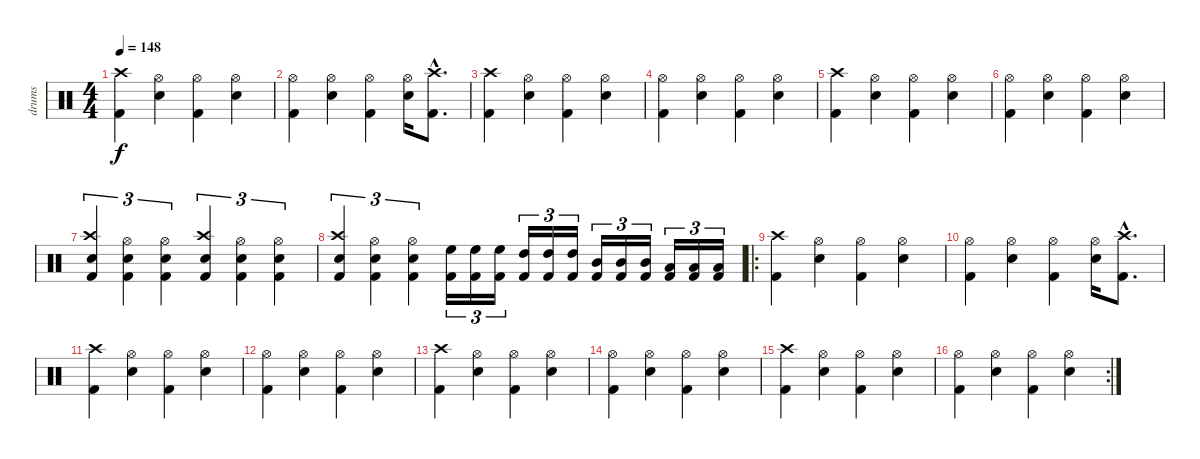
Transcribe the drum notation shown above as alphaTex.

\track ("drums" "drums") {instrument percussion}
\staff {score}
\articulation defaults
\ts (4 4)
\tempo 148
\clef neutral
\ks c
("Kick (hit) 2" "Crash high (hit)").4{dy f} ("Snare (hit) 2" "Hi-Hat (open)").4 ("Kick (hit) 2" "Hi-Hat (open)").4 ("Snare (hit) 2" "Hi-Hat (open)").4 |
("Kick (hit) 2" "Hi-Hat (open)").4 ("Snare (hit) 2" "Hi-Hat (open)").4 ("Kick (hit) 2" "Hi-Hat (open)").4 ("Snare (hit) 2" "Hi-Hat (open)").16 ("Kick (hit) 2"{hac} "Crash high (hit)"{hac}).8{d} |
("Kick (hit) 2" "Crash high (hit)").4 ("Snare (hit) 2" "Hi-Hat (open)").4 ("Kick (hit) 2" "Hi-Hat (open)").4 ("Snare (hit) 2" "Hi-Hat (open)").4 |
("Kick (hit) 2" "Hi-Hat (open)").4 ("Snare (hit) 2" "Hi-Hat (open)").4 ("Kick (hit) 2" "Hi-Hat (open)").4 ("Snare (hit) 2" "Hi-Hat (open)").4 |
("Kick (hit) 2" "Crash high (hit)").4 ("Snare (hit) 2" "Hi-Hat (open)").4 ("Kick (hit) 2" "Hi-Hat (open)").4 ("Snare (hit) 2" "Hi-Hat (open)").4 |
("Kick (hit) 2" "Hi-Hat (open)").4 ("Snare (hit) 2" "Hi-Hat (open)").4 ("Kick (hit) 2" "Hi-Hat (open)").4 ("Snare (hit) 2" "Hi-Hat (open)").4 |
("Kick (hit) 2" "Snare (hit) 2" "Crash high (hit)").4{tu (3 2)} ("Kick (hit) 2" "Snare (hit) 2" "Hi-Hat (open)").4{tu (3 2)} ("Kick (hit) 2" "Snare (hit) 2" "Hi-Hat (open)").4{tu (3 2)} ("Kick (hit) 2" "Snare (hit) 2" "Crash high (hit)").4{tu (3 2)} ("Kick (hit) 2" "Snare (hit) 2" "Hi-Hat (open)").4{tu (3 2)} ("Kick (hit) 2" "Snare (hit) 2" "Hi-Hat (open)").4{tu (3 2)} |
("Kick (hit) 2" "Snare (hit) 2" "Crash high (hit)").4{tu (3 2)} ("Kick (hit) 2" "Snare (hit) 2" "Hi-Hat (open)").4{tu (3 2)} ("Kick (hit) 2" "Snare (hit) 2" "Hi-Hat (open)").4{tu (3 2)} ("Kick (hit) 2" "High Floor Tom (hit)").16{tu (3 2)} ("Kick (hit) 2" "High Floor Tom (hit)").16{tu (3 2)} ("Kick (hit) 2" "High Floor Tom (hit)").16{tu (3 2)} ("Kick (hit) 2" "High Tom (hit)").16{tu (3 2)} ("Kick (hit) 2" "High Tom (hit)").16{tu (3 2)} ("Kick (hit) 2" "High Tom (hit)").16{tu (3 2)} ("Kick (hit) 2" "Mid Tom (hit)").16{tu (3 2)} ("Kick (hit) 2" "Mid Tom (hit)").16{tu (3 2)} ("Kick (hit) 2" "Mid Tom (hit)").16{tu (3 2)} ("Kick (hit) 2" "Low Tom (hit)").16{tu (3 2)} ("Kick (hit) 2" "Low Tom (hit)").16{tu (3 2)} ("Kick (hit) 2" "Low Tom (hit)").16{tu (3 2)} |
\ro
("Kick (hit) 2" "Crash high (hit)").4 ("Snare (hit) 2" "Hi-Hat (open)").4 ("Kick (hit) 2" "Hi-Hat (open)").4 ("Snare (hit) 2" "Hi-Hat (open)").4 |
("Kick (hit) 2" "Hi-Hat (open)").4 ("Snare (hit) 2" "Hi-Hat (open)").4 ("Kick (hit) 2" "Hi-Hat (open)").4 ("Snare (hit) 2" "Hi-Hat (open)").16 ("Kick (hit) 2"{hac} "Crash high (hit)"{hac}).8{d} |
("Kick (hit) 2" "Crash high (hit)").4 ("Snare (hit) 2" "Hi-Hat (open)").4 ("Kick (hit) 2" "Hi-Hat (open)").4 ("Snare (hit) 2" "Hi-Hat (open)").4 |
("Kick (hit) 2" "Hi-Hat (open)").4 ("Snare (hit) 2" "Hi-Hat (open)").4 ("Kick (hit) 2" "Hi-Hat (open)").4 ("Snare (hit) 2" "Hi-Hat (open)").4 |
("Kick (hit) 2" "Crash high (hit)").4 ("Snare (hit) 2" "Hi-Hat (open)").4 ("Kick (hit) 2" "Hi-Hat (open)").4 ("Snare (hit) 2" "Hi-Hat (open)").4 |
("Kick (hit) 2" "Hi-Hat (open)").4 ("Snare (hit) 2" "Hi-Hat (open)").4 ("Kick (hit) 2" "Hi-Hat (open)").4 ("Snare (hit) 2" "Hi-Hat (open)").4 |
("Kick (hit) 2" "Crash high (hit)").4 ("Snare (hit) 2" "Hi-Hat (open)").4 ("Kick (hit) 2" "Hi-Hat (open)").4 ("Snare (hit) 2" "Hi-Hat (open)").4 |
\rc 2
("Kick (hit) 2" "Hi-Hat (open)").4 ("Snare (hit) 2" "Hi-Hat (open)").4 ("Kick (hit) 2" "Hi-Hat (open)").4 ("Snare (hit) 2" "Hi-Hat (open)").4
